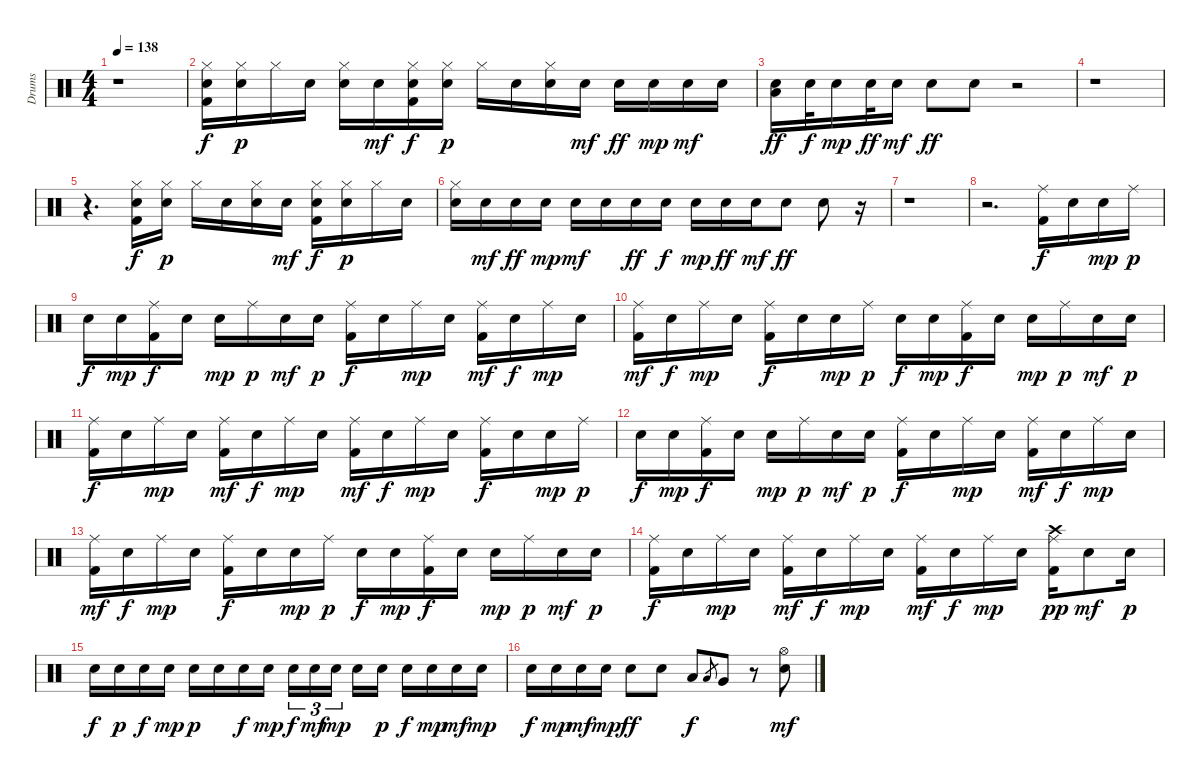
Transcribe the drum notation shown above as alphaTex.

\track ("Drums" "Drums") {instrument percussion}
\staff {score}
\articulation defaults
\ts (4 4)
\tempo 138
\clef neutral
\ks c
r.1{dy f} |
("Kick (hit) 2" "Electric Snare (hit)" "Hi-Hat (closed)").16 ("Electric Snare (hit)" "Hi-Hat (closed)").16{dy p} "Hi-Hat (closed)".16 "Electric Snare (hit)".16 ("Electric Snare (hit)" "Hi-Hat (closed)").16 "Electric Snare (hit)".16{dy mf} ("Kick (hit) 2" "Electric Snare (hit)" "Hi-Hat (closed)").16{dy f} ("Electric Snare (hit)" "Hi-Hat (closed)").16{dy p} "Hi-Hat (closed)".16 "Electric Snare (hit)".16 ("Electric Snare (hit)" "Hi-Hat (closed)").16 "Electric Snare (hit)".16{dy mf} "Electric Snare (hit)".16{dy ff} "Electric Snare (hit)".16{dy mp} "Electric Snare (hit)".16{dy mf} "Electric Snare (hit)".16 |
("Low Tom (hit)" "Electric Snare (hit)").16{dy ff} "Electric Snare (hit)".32{dy f} "Electric Snare (hit)".16{dy mp} "Electric Snare (hit)".32{dy ff} "Electric Snare (hit)".16{dy mf} "Electric Snare (hit)".8{dy ff} "Electric Snare (hit)".8 r.2 |
r.1 |
r.4{d} ("Kick (hit) 2" "Electric Snare (hit)" "Hi-Hat (closed)").16{dy f} ("Electric Snare (hit)" "Hi-Hat (closed)").16{dy p} "Hi-Hat (closed)".16 "Electric Snare (hit)".16 ("Electric Snare (hit)" "Hi-Hat (closed)").16 "Electric Snare (hit)".16{dy mf} ("Kick (hit) 2" "Electric Snare (hit)" "Hi-Hat (closed)").16{dy f} ("Electric Snare (hit)" "Hi-Hat (closed)").16{dy p} "Hi-Hat (closed)".16 "Electric Snare (hit)".16 |
("Electric Snare (hit)" "Hi-Hat (closed)").16 "Electric Snare (hit)".16{dy mf} "Electric Snare (hit)".16{dy ff} "Electric Snare (hit)".16{dy mp} "Electric Snare (hit)".16{dy mf} "Electric Snare (hit)".16 "Electric Snare (hit)".16{dy ff} "Electric Snare (hit)".16{dy f} "Electric Snare (hit)".16{dy mp} "Electric Snare (hit)".16{dy ff} "Electric Snare (hit)".16{dy mf} "Electric Snare (hit)".8{dy ff} "Electric Snare (hit)".8 r.16 |
r.1 |
r.2{d} ("Kick (hit) 2" "Ride (middle)").16{dy f} "Electric Snare (hit)".16 "Electric Snare (hit)".16{dy mp} "Ride (middle)".16{dy p} |
"Electric Snare (hit)".16{dy f} "Electric Snare (hit)".16{dy mp} ("Kick (hit) 2" "Ride (middle)").16{dy f} "Electric Snare (hit)".16 "Electric Snare (hit)".16{dy mp} "Ride (middle)".16{dy p} "Electric Snare (hit)".16{dy mf} "Electric Snare (hit)".16{dy p} ("Kick (hit) 2" "Ride (middle)").16{dy f} "Electric Snare (hit)".16 "Ride (middle)".16{dy mp} "Electric Snare (hit)".16 ("Kick (hit) 2" "Ride (middle)").16{dy mf} "Electric Snare (hit)".16{dy f} "Ride (middle)".16{dy mp} "Electric Snare (hit)".16 |
("Kick (hit) 2" "Ride (middle)").16{dy mf} "Electric Snare (hit)".16{dy f} "Ride (middle)".16{dy mp} "Electric Snare (hit)".16 ("Kick (hit) 2" "Ride (middle)").16{dy f} "Electric Snare (hit)".16 "Electric Snare (hit)".16{dy mp} "Ride (middle)".16{dy p} "Electric Snare (hit)".16{dy f} "Electric Snare (hit)".16{dy mp} ("Kick (hit) 2" "Ride (middle)").16{dy f} "Electric Snare (hit)".16 "Electric Snare (hit)".16{dy mp} "Ride (middle)".16{dy p} "Electric Snare (hit)".16{dy mf} "Electric Snare (hit)".16{dy p} |
("Kick (hit) 2" "Ride (middle)").16{dy f} "Electric Snare (hit)".16 "Ride (middle)".16{dy mp} "Electric Snare (hit)".16 ("Kick (hit) 2" "Ride (middle)").16{dy mf} "Electric Snare (hit)".16{dy f} "Ride (middle)".16{dy mp} "Electric Snare (hit)".16 ("Kick (hit) 2" "Ride (middle)").16{dy mf} "Electric Snare (hit)".16{dy f} "Ride (middle)".16{dy mp} "Electric Snare (hit)".16 ("Kick (hit) 2" "Ride (middle)").16{dy f} "Electric Snare (hit)".16 "Electric Snare (hit)".16{dy mp} "Ride (middle)".16{dy p} |
"Electric Snare (hit)".16{dy f} "Electric Snare (hit)".16{dy mp} ("Kick (hit) 2" "Ride (middle)").16{dy f} "Electric Snare (hit)".16 "Electric Snare (hit)".16{dy mp} "Ride (middle)".16{dy p} "Electric Snare (hit)".16{dy mf} "Electric Snare (hit)".16{dy p} ("Kick (hit) 2" "Ride (middle)").16{dy f} "Electric Snare (hit)".16 "Ride (middle)".16{dy mp} "Electric Snare (hit)".16 ("Kick (hit) 2" "Ride (middle)").16{dy mf} "Electric Snare (hit)".16{dy f} "Ride (middle)".16{dy mp} "Electric Snare (hit)".16 |
("Kick (hit) 2" "Ride (middle)").16{dy mf} "Electric Snare (hit)".16{dy f} "Ride (middle)".16{dy mp} "Electric Snare (hit)".16 ("Kick (hit) 2" "Ride (middle)").16{dy f} "Electric Snare (hit)".16 "Electric Snare (hit)".16{dy mp} "Ride (middle)".16{dy p} "Electric Snare (hit)".16{dy f} "Electric Snare (hit)".16{dy mp} ("Kick (hit) 2" "Ride (middle)").16{dy f} "Electric Snare (hit)".16 "Electric Snare (hit)".16{dy mp} "Ride (middle)".16{dy p} "Electric Snare (hit)".16{dy mf} "Electric Snare (hit)".16{dy p} |
("Kick (hit) 2" "Ride (middle)").16{dy f} "Electric Snare (hit)".16 "Ride (middle)".16{dy mp} "Electric Snare (hit)".16 ("Kick (hit) 2" "Ride (middle)").16{dy mf} "Electric Snare (hit)".16{dy f} "Ride (middle)".16{dy mp} "Electric Snare (hit)".16 ("Kick (hit) 2" "Ride (middle)").16{dy mf} "Electric Snare (hit)".16{dy f} "Ride (middle)".16{dy mp} "Electric Snare (hit)".16 ("Kick (hit) 2" "Crash high (hit)" "Ride (middle)").16{dy pp} "Electric Snare (hit)".8{dy mf} "Electric Snare (hit)".16{dy p} |
"Electric Snare (hit)".16{dy f} "Electric Snare (hit)".16{dy p} "Electric Snare (hit)".16{dy f} "Electric Snare (hit)".16{dy mp} "Electric Snare (hit)".16{dy p} "Electric Snare (hit)".16 "Electric Snare (hit)".16{dy f} "Electric Snare (hit)".16{dy mp} "Electric Snare (hit)".16{tu (3 2) dy f} "Electric Snare (hit)".16{tu (3 2) dy mf} "Electric Snare (hit)".16{tu (3 2) dy mp beam splitsecondary} "Electric Snare (hit)".16 "Electric Snare (hit)".16{dy p} "Electric Snare (hit)".16{dy f} "Electric Snare (hit)".16{dy mp} "Electric Snare (hit)".16{dy mf} "Electric Snare (hit)".16{dy mp} |
"Electric Snare (hit)".16{dy f} "Electric Snare (hit)".16{dy mp} "Electric Snare (hit)".16{dy mf} "Electric Snare (hit)".16{dy mp} "Electric Snare (hit)".8{dy ff} "Electric Snare (hit)".8 "Low Tom (hit)".8{dy f} "Low Tom (hit)".8{gr} "Very Low Tom (hit)".8 r.8 ("Electric Snare (hit)" "Hi-Hat (open)").8{dy mf}
